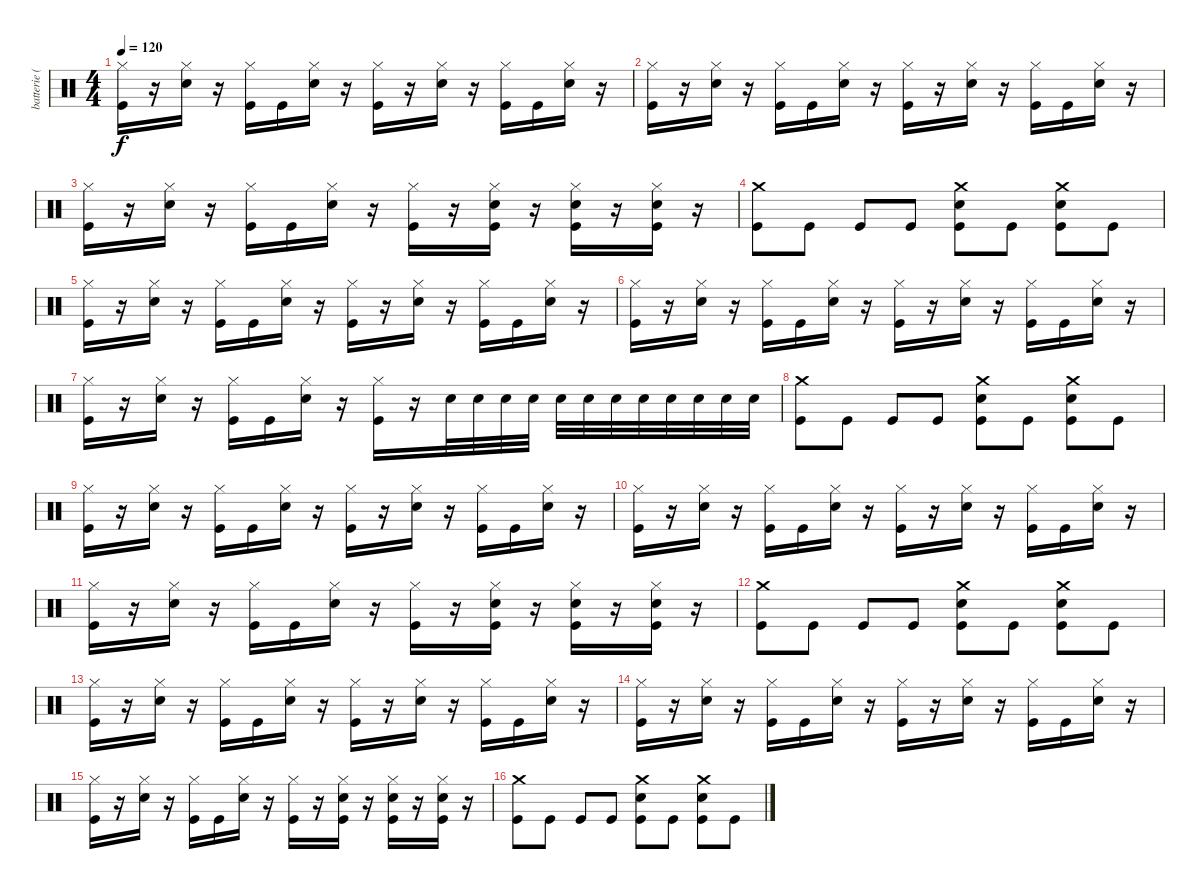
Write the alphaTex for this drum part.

\track ("batterie ( Yureesh ) " "batterie (") {instrument percussion}
\staff {score}
\articulation defaults
\ts (4 4)
\tempo 120
\clef neutral
\ks c
("Hi-Hat (closed)" "Kick (hit)").16{dy f} r.16 ("Hi-Hat (closed)" "Snare (hit) 2").16 r.16 ("Hi-Hat (closed)" "Kick (hit)").16 "Kick (hit)".16 ("Hi-Hat (closed)" "Snare (hit) 2").16 r.16 ("Hi-Hat (closed)" "Kick (hit)").16 r.16 ("Hi-Hat (closed)" "Snare (hit) 2").16 r.16 ("Hi-Hat (closed)" "Kick (hit)").16 "Kick (hit)".16 ("Hi-Hat (closed)" "Snare (hit) 2").16 r.16 |
("Hi-Hat (closed)" "Kick (hit)").16 r.16 ("Hi-Hat (closed)" "Snare (hit) 2").16 r.16 ("Hi-Hat (closed)" "Kick (hit)").16 "Kick (hit)".16 ("Hi-Hat (closed)" "Snare (hit) 2").16 r.16 ("Hi-Hat (closed)" "Kick (hit)").16 r.16 ("Hi-Hat (closed)" "Snare (hit) 2").16 r.16 ("Hi-Hat (closed)" "Kick (hit)").16 "Kick (hit)".16 ("Hi-Hat (closed)" "Snare (hit) 2").16 r.16 |
("Hi-Hat (closed)" "Kick (hit)").16 r.16 ("Hi-Hat (closed)" "Snare (hit) 2").16 r.16 ("Hi-Hat (closed)" "Kick (hit)").16 "Kick (hit)".16 ("Hi-Hat (closed)" "Snare (hit) 2").16 r.16 ("Hi-Hat (closed)" "Kick (hit)").16 r.16 ("Hi-Hat (closed)" "Snare (hit) 2" "Kick (hit)").16 r.16 ("Hi-Hat (closed)" "Snare (hit) 2" "Kick (hit)").16 r.16 ("Hi-Hat (closed)" "Snare (hit) 2" "Kick (hit)").16 r.16 |
("Crash medium (hit)" "Kick (hit)").8 "Kick (hit)".8 "Kick (hit)".8 "Kick (hit)".8 ("Crash medium (hit)" "Snare (hit) 2" "Kick (hit)").8 "Kick (hit)".8 ("Crash medium (hit)" "Snare (hit) 2" "Kick (hit)").8 "Kick (hit)".8 |
("Hi-Hat (closed)" "Kick (hit)").16 r.16 ("Hi-Hat (closed)" "Snare (hit) 2").16 r.16 ("Hi-Hat (closed)" "Kick (hit)").16 "Kick (hit)".16 ("Hi-Hat (closed)" "Snare (hit) 2").16 r.16 ("Hi-Hat (closed)" "Kick (hit)").16 r.16 ("Hi-Hat (closed)" "Snare (hit) 2").16 r.16 ("Hi-Hat (closed)" "Kick (hit)").16 "Kick (hit)".16 ("Hi-Hat (closed)" "Snare (hit) 2").16 r.16 |
("Hi-Hat (closed)" "Kick (hit)").16 r.16 ("Hi-Hat (closed)" "Snare (hit) 2").16 r.16 ("Hi-Hat (closed)" "Kick (hit)").16 "Kick (hit)".16 ("Hi-Hat (closed)" "Snare (hit) 2").16 r.16 ("Hi-Hat (closed)" "Kick (hit)").16 r.16 ("Hi-Hat (closed)" "Snare (hit) 2").16 r.16 ("Hi-Hat (closed)" "Kick (hit)").16 "Kick (hit)".16 ("Hi-Hat (closed)" "Snare (hit) 2").16 r.16 |
("Hi-Hat (closed)" "Kick (hit)").16 r.16 ("Hi-Hat (closed)" "Snare (hit) 2").16 r.16 ("Hi-Hat (closed)" "Kick (hit)").16 "Kick (hit)".16 ("Hi-Hat (closed)" "Snare (hit) 2").16 r.16 ("Hi-Hat (closed)" "Kick (hit)").16 r.16 "Snare (hit) 2".32 "Snare (hit) 2".32 "Snare (hit) 2".32 "Snare (hit) 2".32 "Snare (hit) 2".32 "Snare (hit) 2".32 "Snare (hit) 2".32 "Snare (hit) 2".32 "Snare (hit) 2".32 "Snare (hit) 2".32 "Snare (hit) 2".32 "Snare (hit) 2".32 |
("Crash medium (hit)" "Kick (hit)").8 "Kick (hit)".8 "Kick (hit)".8 "Kick (hit)".8 ("Crash medium (hit)" "Snare (hit) 2" "Kick (hit)").8 "Kick (hit)".8 ("Crash medium (hit)" "Snare (hit) 2" "Kick (hit)").8 "Kick (hit)".8 |
("Hi-Hat (closed)" "Kick (hit)").16 r.16 ("Hi-Hat (closed)" "Snare (hit) 2").16 r.16 ("Hi-Hat (closed)" "Kick (hit)").16 "Kick (hit)".16 ("Hi-Hat (closed)" "Snare (hit) 2").16 r.16 ("Hi-Hat (closed)" "Kick (hit)").16 r.16 ("Hi-Hat (closed)" "Snare (hit) 2").16 r.16 ("Hi-Hat (closed)" "Kick (hit)").16 "Kick (hit)".16 ("Hi-Hat (closed)" "Snare (hit) 2").16 r.16 |
("Hi-Hat (closed)" "Kick (hit)").16 r.16 ("Hi-Hat (closed)" "Snare (hit) 2").16 r.16 ("Hi-Hat (closed)" "Kick (hit)").16 "Kick (hit)".16 ("Hi-Hat (closed)" "Snare (hit) 2").16 r.16 ("Hi-Hat (closed)" "Kick (hit)").16 r.16 ("Hi-Hat (closed)" "Snare (hit) 2").16 r.16 ("Hi-Hat (closed)" "Kick (hit)").16 "Kick (hit)".16 ("Hi-Hat (closed)" "Snare (hit) 2").16 r.16 |
("Hi-Hat (closed)" "Kick (hit)").16 r.16 ("Hi-Hat (closed)" "Snare (hit) 2").16 r.16 ("Hi-Hat (closed)" "Kick (hit)").16 "Kick (hit)".16 ("Hi-Hat (closed)" "Snare (hit) 2").16 r.16 ("Hi-Hat (closed)" "Kick (hit)").16 r.16 ("Hi-Hat (closed)" "Snare (hit) 2" "Kick (hit)").16 r.16 ("Hi-Hat (closed)" "Snare (hit) 2" "Kick (hit)").16 r.16 ("Hi-Hat (closed)" "Snare (hit) 2" "Kick (hit)").16 r.16 |
("Crash medium (hit)" "Kick (hit)").8 "Kick (hit)".8 "Kick (hit)".8 "Kick (hit)".8 ("Crash medium (hit)" "Snare (hit) 2" "Kick (hit)").8 "Kick (hit)".8 ("Crash medium (hit)" "Snare (hit) 2" "Kick (hit)").8 "Kick (hit)".8 |
("Hi-Hat (closed)" "Kick (hit)").16 r.16 ("Hi-Hat (closed)" "Snare (hit) 2").16 r.16 ("Hi-Hat (closed)" "Kick (hit)").16 "Kick (hit)".16 ("Hi-Hat (closed)" "Snare (hit) 2").16 r.16 ("Hi-Hat (closed)" "Kick (hit)").16 r.16 ("Hi-Hat (closed)" "Snare (hit) 2").16 r.16 ("Hi-Hat (closed)" "Kick (hit)").16 "Kick (hit)".16 ("Hi-Hat (closed)" "Snare (hit) 2").16 r.16 |
("Hi-Hat (closed)" "Kick (hit)").16 r.16 ("Hi-Hat (closed)" "Snare (hit) 2").16 r.16 ("Hi-Hat (closed)" "Kick (hit)").16 "Kick (hit)".16 ("Hi-Hat (closed)" "Snare (hit) 2").16 r.16 ("Hi-Hat (closed)" "Kick (hit)").16 r.16 ("Hi-Hat (closed)" "Snare (hit) 2").16 r.16 ("Hi-Hat (closed)" "Kick (hit)").16 "Kick (hit)".16 ("Hi-Hat (closed)" "Snare (hit) 2").16 r.16 |
("Hi-Hat (closed)" "Kick (hit)").16 r.16 ("Hi-Hat (closed)" "Snare (hit) 2").16 r.16 ("Hi-Hat (closed)" "Kick (hit)").16 "Kick (hit)".16 ("Hi-Hat (closed)" "Snare (hit) 2").16 r.16 ("Hi-Hat (closed)" "Kick (hit)").16 r.16 ("Hi-Hat (closed)" "Snare (hit) 2" "Kick (hit)").16 r.16 ("Hi-Hat (closed)" "Snare (hit) 2" "Kick (hit)").16 r.16 ("Hi-Hat (closed)" "Snare (hit) 2" "Kick (hit)").16 r.16 |
("Crash medium (hit)" "Kick (hit)").8 "Kick (hit)".8 "Kick (hit)".8 "Kick (hit)".8 ("Crash medium (hit)" "Snare (hit) 2" "Kick (hit)").8 "Kick (hit)".8 ("Crash medium (hit)" "Snare (hit) 2" "Kick (hit)").8 "Kick (hit)".8
